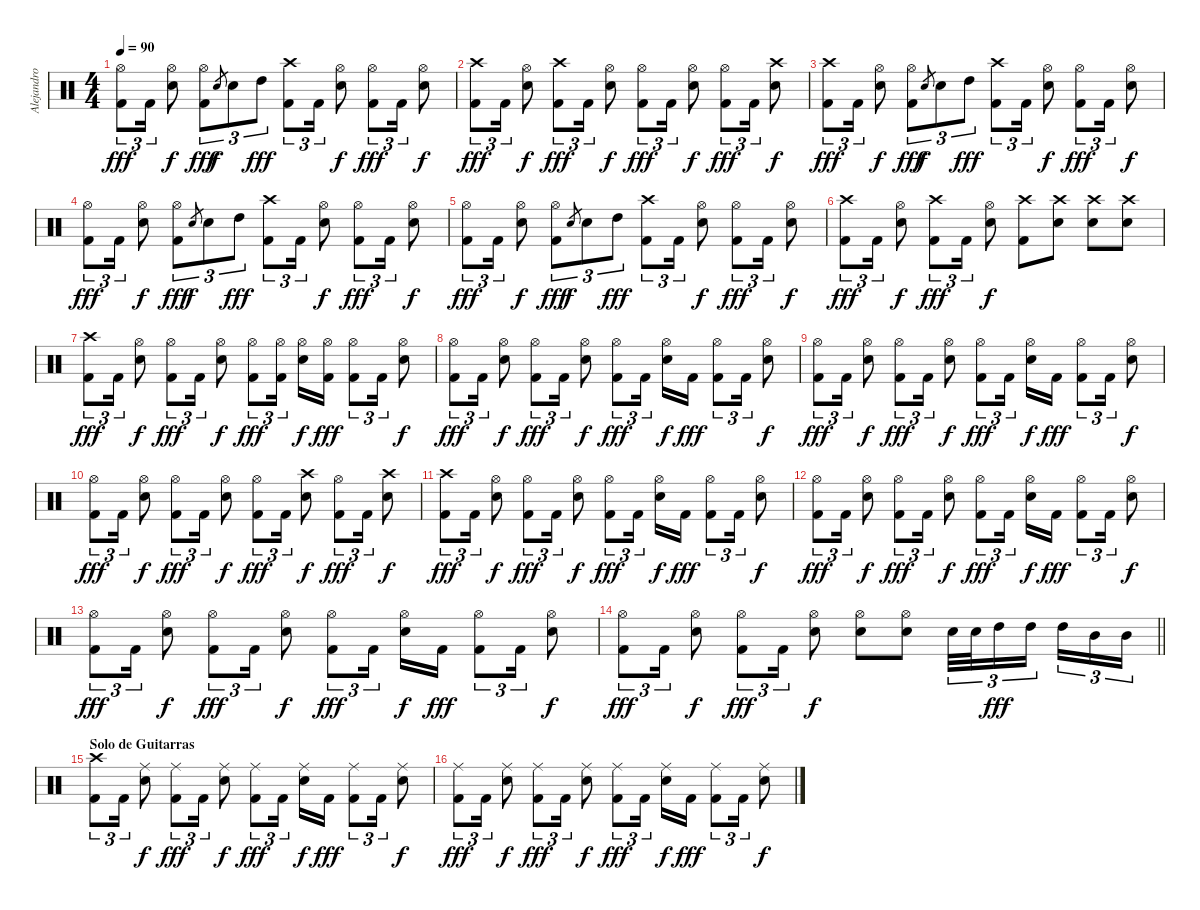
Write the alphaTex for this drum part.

\track ("Alejandro Gutiérrez" "Alejandro ") {instrument percussion}
\staff {score}
\articulation defaults
\ts (4 4)
\tempo 90
\clef neutral
\ks c
("Hi-Hat (open)" "Kick (hit) 2").8{tu (3 2) dy fff} "Kick (hit) 2".16{tu (3 2)} ("Hi-Hat (open)" "Electric Snare (hit)").8{dy f} ("Hi-Hat (open)" "Kick (hit) 2").8{tu (3 2) dy fff} "Electric Snare (hit)".8{gr dy f} "Electric Snare (hit)".8{tu (3 2)} "High Tom (hit)".8{tu (3 2) dy fff} ("Crash high (hit)" "Kick (hit) 2").8{tu (3 2)} "Kick (hit) 2".16{tu (3 2)} ("Hi-Hat (open)" "Electric Snare (hit)").8{dy f} ("Hi-Hat (open)" "Kick (hit) 2").8{tu (3 2) dy fff} "Kick (hit) 2".16{tu (3 2)} ("Hi-Hat (open)" "Electric Snare (hit)").8{dy f} |
("Crash high (hit)" "Kick (hit) 2").8{tu (3 2) dy fff} "Kick (hit) 2".16{tu (3 2)} ("Hi-Hat (open)" "Electric Snare (hit)").8{dy f} ("Crash high (hit)" "Kick (hit) 2").8{tu (3 2) dy fff} "Kick (hit) 2".16{tu (3 2)} ("Hi-Hat (open)" "Electric Snare (hit)").8{dy f} ("Hi-Hat (open)" "Kick (hit) 2").8{tu (3 2) dy fff} "Kick (hit) 2".16{tu (3 2)} ("Hi-Hat (open)" "Electric Snare (hit)").8{dy f} ("Hi-Hat (open)" "Kick (hit) 2").8{tu (3 2) dy fff} "Kick (hit) 2".16{tu (3 2)} ("Crash high (hit)" "Electric Snare (hit)").8{dy f} |
("Crash high (hit)" "Kick (hit) 2").8{tu (3 2) dy fff} "Kick (hit) 2".16{tu (3 2)} ("Hi-Hat (open)" "Electric Snare (hit)").8{dy f} ("Hi-Hat (open)" "Kick (hit) 2").8{tu (3 2) dy fff} "Electric Snare (hit)".8{gr dy f} "Electric Snare (hit)".8{tu (3 2)} "High Tom (hit)".8{tu (3 2) dy fff} ("Crash high (hit)" "Kick (hit) 2").8{tu (3 2)} "Kick (hit) 2".16{tu (3 2)} ("Hi-Hat (open)" "Electric Snare (hit)").8{dy f} ("Hi-Hat (open)" "Kick (hit) 2").8{tu (3 2) dy fff} "Kick (hit) 2".16{tu (3 2)} ("Hi-Hat (open)" "Electric Snare (hit)").8{dy f} |
("Hi-Hat (open)" "Kick (hit) 2").8{tu (3 2) dy fff} "Kick (hit) 2".16{tu (3 2)} ("Hi-Hat (open)" "Electric Snare (hit)").8{dy f} ("Hi-Hat (open)" "Kick (hit) 2").8{tu (3 2) dy fff} "Electric Snare (hit)".8{gr dy f} "Electric Snare (hit)".8{tu (3 2)} "High Tom (hit)".8{tu (3 2) dy fff} ("Crash high (hit)" "Kick (hit) 2").8{tu (3 2)} "Kick (hit) 2".16{tu (3 2)} ("Hi-Hat (open)" "Electric Snare (hit)").8{dy f} ("Hi-Hat (open)" "Kick (hit) 2").8{tu (3 2) dy fff} "Kick (hit) 2".16{tu (3 2)} ("Hi-Hat (open)" "Electric Snare (hit)").8{dy f} |
("Hi-Hat (open)" "Kick (hit) 2").8{tu (3 2) dy fff} "Kick (hit) 2".16{tu (3 2)} ("Hi-Hat (open)" "Electric Snare (hit)").8{dy f} ("Hi-Hat (open)" "Kick (hit) 2").8{tu (3 2) dy fff} "Electric Snare (hit)".8{gr dy f} "Electric Snare (hit)".8{tu (3 2)} "High Tom (hit)".8{tu (3 2) dy fff} ("Crash high (hit)" "Kick (hit) 2").8{tu (3 2)} "Kick (hit) 2".16{tu (3 2)} ("Hi-Hat (open)" "Electric Snare (hit)").8{dy f} ("Hi-Hat (open)" "Kick (hit) 2").8{tu (3 2) dy fff} "Kick (hit) 2".16{tu (3 2)} ("Hi-Hat (open)" "Electric Snare (hit)").8{dy f} |
("Crash high (hit)" "Kick (hit) 2").8{tu (3 2) dy fff} "Kick (hit) 2".16{tu (3 2)} ("Hi-Hat (open)" "Electric Snare (hit)").8{dy f} ("Crash high (hit)" "Kick (hit) 2").8{tu (3 2) dy fff} "Kick (hit) 2".16{tu (3 2)} ("Hi-Hat (open)" "Electric Snare (hit)").8{dy f} ("Crash high (hit)" "Kick (hit) 2").8 ("Crash high (hit)" "Electric Snare (hit)").8 ("Crash high (hit)" "Electric Snare (hit)").8 ("Crash high (hit)" "Electric Snare (hit)").8 |
("Crash high (hit)" "Kick (hit) 2").8{tu (3 2) dy fff} "Kick (hit) 2".16{tu (3 2)} ("Hi-Hat (open)" "Electric Snare (hit)").8{dy f} ("Hi-Hat (open)" "Kick (hit) 2").8{tu (3 2) dy fff} "Kick (hit) 2".16{tu (3 2)} ("Hi-Hat (open)" "Electric Snare (hit)").8{dy f} ("Hi-Hat (open)" "Kick (hit) 2").8{tu (3 2) dy fff} ("Hi-Hat (open)" "Kick (hit) 2").16{tu (3 2) beam splitsecondary} ("Hi-Hat (open)" "Electric Snare (hit)").16{dy f} ("Hi-Hat (open)" "Kick (hit) 2").16{dy fff} ("Hi-Hat (open)" "Kick (hit) 2").8{tu (3 2)} "Kick (hit) 2".16{tu (3 2)} ("Hi-Hat (open)" "Electric Snare (hit)").8{dy f} |
("Hi-Hat (open)" "Kick (hit) 2").8{tu (3 2) dy fff} "Kick (hit) 2".16{tu (3 2)} ("Hi-Hat (open)" "Electric Snare (hit)").8{dy f} ("Hi-Hat (open)" "Kick (hit) 2").8{tu (3 2) dy fff} "Kick (hit) 2".16{tu (3 2)} ("Hi-Hat (open)" "Electric Snare (hit)").8{dy f} ("Hi-Hat (open)" "Kick (hit) 2").8{tu (3 2) dy fff} "Kick (hit) 2".16{tu (3 2) beam splitsecondary} ("Hi-Hat (open)" "Electric Snare (hit)").16{dy f} "Kick (hit) 2".16{dy fff} ("Hi-Hat (open)" "Kick (hit) 2").8{tu (3 2)} "Kick (hit) 2".16{tu (3 2)} ("Hi-Hat (open)" "Electric Snare (hit)").8{dy f} |
("Hi-Hat (open)" "Kick (hit) 2").8{tu (3 2) dy fff} "Kick (hit) 2".16{tu (3 2)} ("Hi-Hat (open)" "Electric Snare (hit)").8{dy f} ("Hi-Hat (open)" "Kick (hit) 2").8{tu (3 2) dy fff} "Kick (hit) 2".16{tu (3 2)} ("Hi-Hat (open)" "Electric Snare (hit)").8{dy f} ("Hi-Hat (open)" "Kick (hit) 2").8{tu (3 2) dy fff} "Kick (hit) 2".16{tu (3 2) beam splitsecondary} ("Hi-Hat (open)" "Electric Snare (hit)").16{dy f} "Kick (hit) 2".16{dy fff} ("Hi-Hat (open)" "Kick (hit) 2").8{tu (3 2)} "Kick (hit) 2".16{tu (3 2)} ("Hi-Hat (open)" "Electric Snare (hit)").8{dy f} |
("Hi-Hat (open)" "Kick (hit) 2").8{tu (3 2) dy fff} "Kick (hit) 2".16{tu (3 2)} ("Hi-Hat (open)" "Electric Snare (hit)").8{dy f} ("Hi-Hat (open)" "Kick (hit) 2").8{tu (3 2) dy fff} "Kick (hit) 2".16{tu (3 2)} ("Hi-Hat (open)" "Electric Snare (hit)").8{dy f} ("Hi-Hat (open)" "Kick (hit) 2").8{tu (3 2) dy fff} "Kick (hit) 2".16{tu (3 2)} ("Crash high (hit)" "Electric Snare (hit)").8{dy f} ("Hi-Hat (open)" "Kick (hit) 2").8{tu (3 2) dy fff} "Kick (hit) 2".16{tu (3 2)} ("Crash high (hit)" "Electric Snare (hit)").8{dy f} |
("Crash high (hit)" "Kick (hit) 2").8{tu (3 2) dy fff} "Kick (hit) 2".16{tu (3 2)} ("Hi-Hat (open)" "Electric Snare (hit)").8{dy f} ("Hi-Hat (open)" "Kick (hit) 2").8{tu (3 2) dy fff} "Kick (hit) 2".16{tu (3 2)} ("Hi-Hat (open)" "Electric Snare (hit)").8{dy f} ("Hi-Hat (open)" "Kick (hit) 2").8{tu (3 2) dy fff} "Kick (hit) 2".16{tu (3 2) beam splitsecondary} ("Hi-Hat (open)" "Electric Snare (hit)").16{dy f} "Kick (hit) 2".16{dy fff} ("Hi-Hat (open)" "Kick (hit) 2").8{tu (3 2)} "Kick (hit) 2".16{tu (3 2)} ("Hi-Hat (open)" "Electric Snare (hit)").8{dy f} |
("Hi-Hat (open)" "Kick (hit) 2").8{tu (3 2) dy fff} "Kick (hit) 2".16{tu (3 2)} ("Hi-Hat (open)" "Electric Snare (hit)").8{dy f} ("Hi-Hat (open)" "Kick (hit) 2").8{tu (3 2) dy fff} "Kick (hit) 2".16{tu (3 2)} ("Hi-Hat (open)" "Electric Snare (hit)").8{dy f} ("Hi-Hat (open)" "Kick (hit) 2").8{tu (3 2) dy fff} "Kick (hit) 2".16{tu (3 2) beam splitsecondary} ("Hi-Hat (open)" "Electric Snare (hit)").16{dy f} "Kick (hit) 2".16{dy fff} ("Hi-Hat (open)" "Kick (hit) 2").8{tu (3 2)} "Kick (hit) 2".16{tu (3 2)} ("Hi-Hat (open)" "Electric Snare (hit)").8{dy f} |
("Hi-Hat (open)" "Kick (hit) 2").8{tu (3 2) dy fff} "Kick (hit) 2".16{tu (3 2)} ("Hi-Hat (open)" "Electric Snare (hit)").8{dy f} ("Hi-Hat (open)" "Kick (hit) 2").8{tu (3 2) dy fff} "Kick (hit) 2".16{tu (3 2)} ("Hi-Hat (open)" "Electric Snare (hit)").8{dy f} ("Hi-Hat (open)" "Kick (hit) 2").8{tu (3 2) dy fff} "Kick (hit) 2".16{tu (3 2) beam splitsecondary} ("Hi-Hat (open)" "Electric Snare (hit)").16{dy f} "Kick (hit) 2".16{dy fff} ("Hi-Hat (open)" "Kick (hit) 2").8{tu (3 2)} "Kick (hit) 2".16{tu (3 2)} ("Hi-Hat (open)" "Electric Snare (hit)").8{dy f} |
\barLineRight lightlight
("Hi-Hat (open)" "Kick (hit) 2").8{tu (3 2) dy fff} "Kick (hit) 2".16{tu (3 2)} ("Hi-Hat (open)" "Electric Snare (hit)").8{dy f} ("Hi-Hat (open)" "Kick (hit) 2").8{tu (3 2) dy fff} "Kick (hit) 2".16{tu (3 2)} ("Hi-Hat (open)" "Electric Snare (hit)").8{dy f} ("Hi-Hat (open)" "Electric Snare (hit)").8 ("Hi-Hat (open)" "Electric Snare (hit)").8 "Electric Snare (hit)".32{tu (3 2)} "Electric Snare (hit)".32{tu (3 2)} "High Tom (hit)".16{tu (3 2) dy fff} "High Tom (hit)".16{tu (3 2) beam splitsecondary} "High Tom (hit)".16{tu (3 2)} "Mid Tom (hit)".16{tu (3 2)} "Mid Tom (hit)".16{tu (3 2)} |
\section ("" "Solo de Guitarras")
("Crash high (hit)" "Kick (hit) 2").8{tu (3 2)} "Kick (hit) 2".16{tu (3 2)} ("Ride (middle)" "Electric Snare (hit)").8{dy f} ("Ride (middle)" "Kick (hit) 2").8{tu (3 2) dy fff} "Kick (hit) 2".16{tu (3 2)} ("Ride (middle)" "Electric Snare (hit)").8{dy f} ("Ride (middle)" "Kick (hit) 2").8{tu (3 2) dy fff} "Kick (hit) 2".16{tu (3 2) beam splitsecondary} ("Ride (middle)" "Electric Snare (hit)").16{dy f} "Kick (hit) 2".16{dy fff} ("Ride (middle)" "Kick (hit) 2").8{tu (3 2)} "Kick (hit) 2".16{tu (3 2)} ("Ride (middle)" "Electric Snare (hit)").8{dy f} |
("Ride (middle)" "Kick (hit) 2").8{tu (3 2) dy fff} "Kick (hit) 2".16{tu (3 2)} ("Ride (middle)" "Electric Snare (hit)").8{dy f} ("Ride (middle)" "Kick (hit) 2").8{tu (3 2) dy fff} "Kick (hit) 2".16{tu (3 2)} ("Ride (middle)" "Electric Snare (hit)").8{dy f} ("Ride (middle)" "Kick (hit) 2").8{tu (3 2) dy fff} "Kick (hit) 2".16{tu (3 2) beam splitsecondary} ("Ride (middle)" "Electric Snare (hit)").16{dy f} "Kick (hit) 2".16{dy fff} ("Ride (middle)" "Kick (hit) 2").8{tu (3 2)} "Kick (hit) 2".16{tu (3 2)} ("Ride (middle)" "Electric Snare (hit)").8{dy f}
